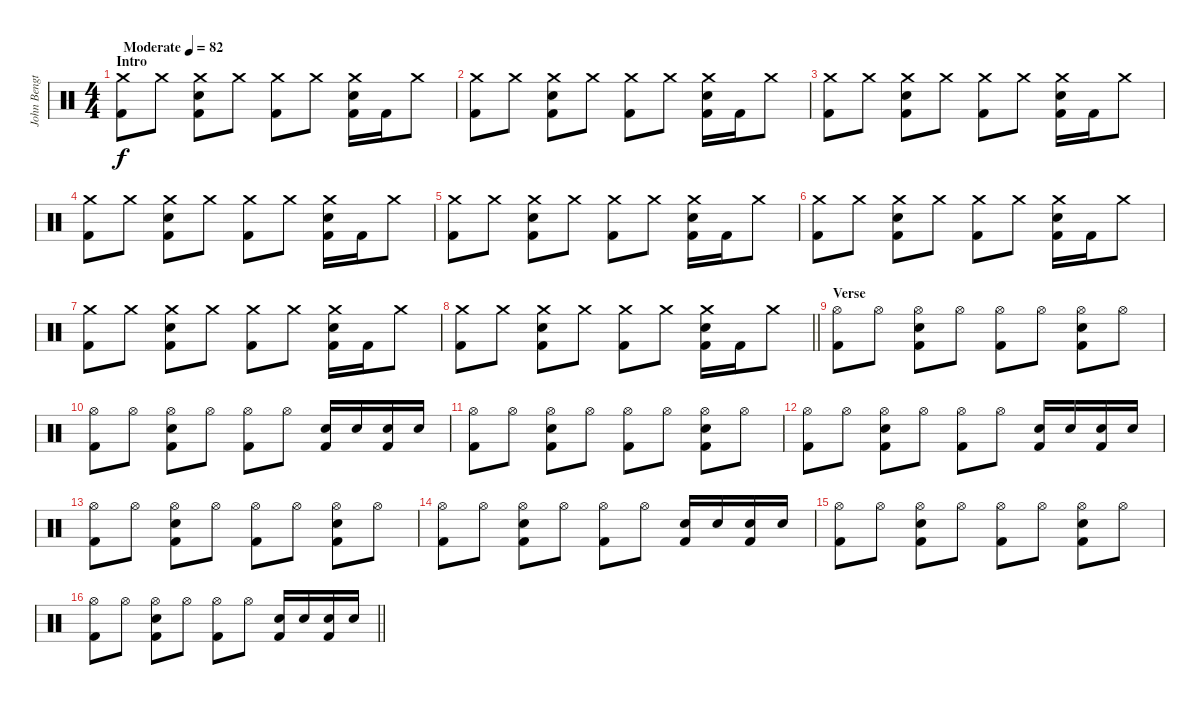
\track ("John Bengtsson" "John Bengt") {instrument percussion}
\staff {score}
\articulation defaults
\ts (4 4)
\section ("" "Intro")
\tempo (82 "Moderate")
\clef neutral
\ks c
("Crash medium (hit)" "Kick (hit) 2").8{dy f} "Crash medium (hit)".8 ("Crash medium (hit)" "Electric Snare (hit)" "Kick (hit) 2").8 "Crash medium (hit)".8 ("Crash medium (hit)" "Kick (hit) 2").8 "Crash medium (hit)".8 ("Crash medium (hit)" "Electric Snare (hit)" "Kick (hit) 2").16 "Kick (hit) 2".16 "Crash medium (hit)".8 |
("Crash medium (hit)" "Kick (hit) 2").8 "Crash medium (hit)".8 ("Crash medium (hit)" "Electric Snare (hit)" "Kick (hit) 2").8 "Crash medium (hit)".8 ("Crash medium (hit)" "Kick (hit) 2").8 "Crash medium (hit)".8 ("Crash medium (hit)" "Electric Snare (hit)" "Kick (hit) 2").16 "Kick (hit) 2".16 "Crash medium (hit)".8 |
("Crash medium (hit)" "Kick (hit) 2").8 "Crash medium (hit)".8 ("Crash medium (hit)" "Electric Snare (hit)" "Kick (hit) 2").8 "Crash medium (hit)".8 ("Crash medium (hit)" "Kick (hit) 2").8 "Crash medium (hit)".8 ("Crash medium (hit)" "Electric Snare (hit)" "Kick (hit) 2").16 "Kick (hit) 2".16 "Crash medium (hit)".8 |
("Crash medium (hit)" "Kick (hit) 2").8 "Crash medium (hit)".8 ("Crash medium (hit)" "Electric Snare (hit)" "Kick (hit) 2").8 "Crash medium (hit)".8 ("Crash medium (hit)" "Kick (hit) 2").8 "Crash medium (hit)".8 ("Crash medium (hit)" "Electric Snare (hit)" "Kick (hit) 2").16 "Kick (hit) 2".16 "Crash medium (hit)".8 |
("Crash medium (hit)" "Kick (hit) 2").8 "Crash medium (hit)".8 ("Crash medium (hit)" "Electric Snare (hit)" "Kick (hit) 2").8 "Crash medium (hit)".8 ("Crash medium (hit)" "Kick (hit) 2").8 "Crash medium (hit)".8 ("Crash medium (hit)" "Electric Snare (hit)" "Kick (hit) 2").16 "Kick (hit) 2".16 "Crash medium (hit)".8 |
("Crash medium (hit)" "Kick (hit) 2").8 "Crash medium (hit)".8 ("Crash medium (hit)" "Electric Snare (hit)" "Kick (hit) 2").8 "Crash medium (hit)".8 ("Crash medium (hit)" "Kick (hit) 2").8 "Crash medium (hit)".8 ("Crash medium (hit)" "Electric Snare (hit)" "Kick (hit) 2").16 "Kick (hit) 2".16 "Crash medium (hit)".8 |
("Crash medium (hit)" "Kick (hit) 2").8 "Crash medium (hit)".8 ("Crash medium (hit)" "Electric Snare (hit)" "Kick (hit) 2").8 "Crash medium (hit)".8 ("Crash medium (hit)" "Kick (hit) 2").8 "Crash medium (hit)".8 ("Crash medium (hit)" "Electric Snare (hit)" "Kick (hit) 2").16 "Kick (hit) 2".16 "Crash medium (hit)".8 |
\barLineRight lightlight
("Crash medium (hit)" "Kick (hit) 2").8 "Crash medium (hit)".8 ("Crash medium (hit)" "Electric Snare (hit)" "Kick (hit) 2").8 "Crash medium (hit)".8 ("Crash medium (hit)" "Kick (hit) 2").8 "Crash medium (hit)".8 ("Crash medium (hit)" "Electric Snare (hit)" "Kick (hit) 2").16 "Kick (hit) 2".16 "Crash medium (hit)".8 |
\section ("" "Verse")
("Hi-Hat (open)" "Kick (hit) 2").8 "Hi-Hat (open)".8 ("Hi-Hat (open)" "Electric Snare (hit)" "Kick (hit) 2").8 "Hi-Hat (open)".8 ("Hi-Hat (open)" "Kick (hit) 2").8 "Hi-Hat (open)".8 ("Hi-Hat (open)" "Electric Snare (hit)" "Kick (hit) 2").8 "Hi-Hat (open)".8 |
("Hi-Hat (open)" "Kick (hit) 2").8 "Hi-Hat (open)".8 ("Hi-Hat (open)" "Electric Snare (hit)" "Kick (hit) 2").8 "Hi-Hat (open)".8 ("Hi-Hat (open)" "Kick (hit) 2").8 "Hi-Hat (open)".8 ("Electric Snare (hit)" "Kick (hit) 2").16 "Electric Snare (hit)".16 ("Electric Snare (hit)" "Kick (hit) 2").16 "Electric Snare (hit)".16 |
("Hi-Hat (open)" "Kick (hit) 2").8 "Hi-Hat (open)".8 ("Hi-Hat (open)" "Electric Snare (hit)" "Kick (hit) 2").8 "Hi-Hat (open)".8 ("Hi-Hat (open)" "Kick (hit) 2").8 "Hi-Hat (open)".8 ("Hi-Hat (open)" "Electric Snare (hit)" "Kick (hit) 2").8 "Hi-Hat (open)".8 |
("Hi-Hat (open)" "Kick (hit) 2").8 "Hi-Hat (open)".8 ("Hi-Hat (open)" "Electric Snare (hit)" "Kick (hit) 2").8 "Hi-Hat (open)".8 ("Hi-Hat (open)" "Kick (hit) 2").8 "Hi-Hat (open)".8 ("Electric Snare (hit)" "Kick (hit) 2").16 "Electric Snare (hit)".16 ("Electric Snare (hit)" "Kick (hit) 2").16 "Electric Snare (hit)".16 |
("Hi-Hat (open)" "Kick (hit) 2").8 "Hi-Hat (open)".8 ("Hi-Hat (open)" "Electric Snare (hit)" "Kick (hit) 2").8 "Hi-Hat (open)".8 ("Hi-Hat (open)" "Kick (hit) 2").8 "Hi-Hat (open)".8 ("Hi-Hat (open)" "Electric Snare (hit)" "Kick (hit) 2").8 "Hi-Hat (open)".8 |
("Hi-Hat (open)" "Kick (hit) 2").8 "Hi-Hat (open)".8 ("Hi-Hat (open)" "Electric Snare (hit)" "Kick (hit) 2").8 "Hi-Hat (open)".8 ("Hi-Hat (open)" "Kick (hit) 2").8 "Hi-Hat (open)".8 ("Electric Snare (hit)" "Kick (hit) 2").16 "Electric Snare (hit)".16 ("Electric Snare (hit)" "Kick (hit) 2").16 "Electric Snare (hit)".16 |
("Hi-Hat (open)" "Kick (hit) 2").8 "Hi-Hat (open)".8 ("Hi-Hat (open)" "Electric Snare (hit)" "Kick (hit) 2").8 "Hi-Hat (open)".8 ("Hi-Hat (open)" "Kick (hit) 2").8 "Hi-Hat (open)".8 ("Hi-Hat (open)" "Electric Snare (hit)" "Kick (hit) 2").8 "Hi-Hat (open)".8 |
\barLineRight lightlight
("Hi-Hat (open)" "Kick (hit) 2").8 "Hi-Hat (open)".8 ("Hi-Hat (open)" "Electric Snare (hit)" "Kick (hit) 2").8 "Hi-Hat (open)".8 ("Hi-Hat (open)" "Kick (hit) 2").8 "Hi-Hat (open)".8 ("Electric Snare (hit)" "Kick (hit) 2").16 "Electric Snare (hit)".16 ("Electric Snare (hit)" "Kick (hit) 2").16 "Electric Snare (hit)".16
